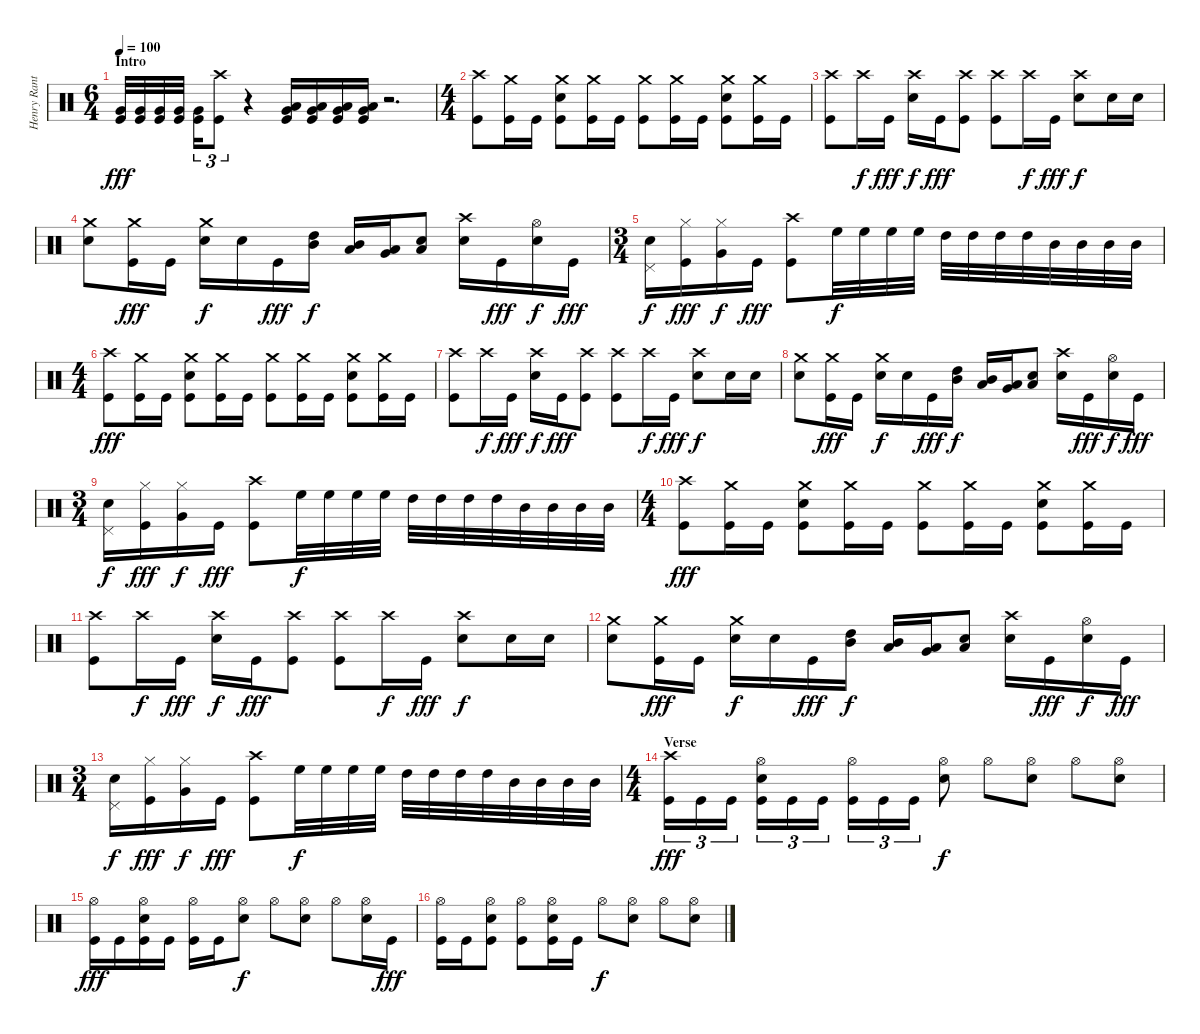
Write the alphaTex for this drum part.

\track ("Henry Ranta" "Henry Rant") {instrument percussion}
\staff {score}
\articulation defaults
\ts (6 4)
\section ("" "Intro")
\tempo 100
\clef neutral
\ks c
("Very Low Tom (hit)" "Kick (hit)").32{dy fff} ("Very Low Tom (hit)" "Kick (hit)").32 ("Very Low Tom (hit)" "Kick (hit)").32 ("Very Low Tom (hit)" "Kick (hit)").32 ("Very Low Tom (hit)" "Kick (hit)").16{tu (3 2)} ("Crash high (hit)" "Kick (hit)").8{tu (3 2)} r.4 ("Low Floor Tom (hit)" "Very Low Tom (hit)" "Kick (hit)").16 ("Low Floor Tom (hit)" "Very Low Tom (hit)" "Kick (hit)").16 ("Low Floor Tom (hit)" "Very Low Tom (hit)" "Kick (hit)").16 ("Low Floor Tom (hit)" "Very Low Tom (hit)" "Kick (hit)").16 r.2{d} |
\ts (4 4)
("Crash high (hit)" "Kick (hit)").8 ("Crash medium (hit)" "Kick (hit)").16 "Kick (hit)".16 ("Crash medium (hit)" "Electric Snare (hit)" "Kick (hit)").8 ("Crash medium (hit)" "Kick (hit)").16 "Kick (hit)".16 ("Crash medium (hit)" "Kick (hit)").8 ("Crash medium (hit)" "Kick (hit)").16 "Kick (hit)".16 ("Crash medium (hit)" "Electric Snare (hit)" "Kick (hit)").8 ("Crash medium (hit)" "Kick (hit)").16 "Kick (hit)".16 |
("Crash high (hit)" "Kick (hit)").8 "Crash high (hit)".16{dy f} "Kick (hit)".16{dy fff} ("Crash high (hit)" "Electric Snare (hit)").16{dy f} "Kick (hit)".16{dy fff} ("Crash high (hit)" "Kick (hit)").8 ("Crash high (hit)" "Kick (hit)").8 "Crash high (hit)".16{dy f} "Kick (hit)".16{dy fff} ("Crash high (hit)" "Electric Snare (hit)").8{dy f} "Electric Snare (hit)".16 "Electric Snare (hit)".16 |
("Crash medium (hit)" "Electric Snare (hit)").8 ("Crash medium (hit)" "Kick (hit)").16{dy fff} "Kick (hit)".16 ("Crash medium (hit)" "Electric Snare (hit)").16{dy f} "Electric Snare (hit)".16 "Kick (hit)".16{dy fff} ("Mid Tom (hit)" "High Tom (hit)").16{dy f} ("Mid Tom (hit)" "Low Tom (hit)").16 ("Very Low Tom (hit)" "Low Tom (hit)").16 ("Low Floor Tom (hit)" "Electric Snare (hit)").8 ("Crash high (hit)" "Electric Snare (hit)").16 "Kick (hit)".16{dy fff} ("Hi-Hat (open)" "Electric Snare (hit)").16{dy f} "Kick (hit)".16{dy fff} |
\ts (3 4)
("Pedal Hi-Hat (hit)" "Electric Snare (hit)").16{dy f} ("Hi-Hat (closed)" "Kick (hit)").16{dy fff} ("Hi-Hat (closed)" "Very Low Tom (hit)").16{dy f} "Kick (hit)".16{dy fff} ("Crash high (hit)" "Kick (hit)").8 "High Floor Tom (hit)".32{dy f} "High Floor Tom (hit)".32 "High Floor Tom (hit)".32 "High Floor Tom (hit)".32 "High Tom (hit)".32 "High Tom (hit)".32 "High Tom (hit)".32 "High Tom (hit)".32 "Mid Tom (hit)".32 "Mid Tom (hit)".32 "Mid Tom (hit)".32 "Mid Tom (hit)".32 |
\ts (4 4)
("Crash high (hit)" "Kick (hit)").8{dy fff} ("Crash medium (hit)" "Kick (hit)").16 "Kick (hit)".16 ("Crash medium (hit)" "Electric Snare (hit)" "Kick (hit)").8 ("Crash medium (hit)" "Kick (hit)").16 "Kick (hit)".16 ("Crash medium (hit)" "Kick (hit)").8 ("Crash medium (hit)" "Kick (hit)").16 "Kick (hit)".16 ("Crash medium (hit)" "Electric Snare (hit)" "Kick (hit)").8 ("Crash medium (hit)" "Kick (hit)").16 "Kick (hit)".16 |
("Crash high (hit)" "Kick (hit)").8 "Crash high (hit)".16{dy f} "Kick (hit)".16{dy fff} ("Crash high (hit)" "Electric Snare (hit)").16{dy f} "Kick (hit)".16{dy fff} ("Crash high (hit)" "Kick (hit)").8 ("Crash high (hit)" "Kick (hit)").8 "Crash high (hit)".16{dy f} "Kick (hit)".16{dy fff} ("Crash high (hit)" "Electric Snare (hit)").8{dy f} "Electric Snare (hit)".16 "Electric Snare (hit)".16 |
("Crash medium (hit)" "Electric Snare (hit)").8 ("Crash medium (hit)" "Kick (hit)").16{dy fff} "Kick (hit)".16 ("Crash medium (hit)" "Electric Snare (hit)").16{dy f} "Electric Snare (hit)".16 "Kick (hit)".16{dy fff} ("Mid Tom (hit)" "High Tom (hit)").16{dy f} ("Mid Tom (hit)" "Low Tom (hit)").16 ("Very Low Tom (hit)" "Low Tom (hit)").16 ("Low Floor Tom (hit)" "Electric Snare (hit)").8 ("Crash high (hit)" "Electric Snare (hit)").16 "Kick (hit)".16{dy fff} ("Hi-Hat (open)" "Electric Snare (hit)").16{dy f} "Kick (hit)".16{dy fff} |
\ts (3 4)
("Pedal Hi-Hat (hit)" "Electric Snare (hit)").16{dy f} ("Hi-Hat (closed)" "Kick (hit)").16{dy fff} ("Hi-Hat (closed)" "Very Low Tom (hit)").16{dy f} "Kick (hit)".16{dy fff} ("Crash high (hit)" "Kick (hit)").8 "High Floor Tom (hit)".32{dy f} "High Floor Tom (hit)".32 "High Floor Tom (hit)".32 "High Floor Tom (hit)".32 "High Tom (hit)".32 "High Tom (hit)".32 "High Tom (hit)".32 "High Tom (hit)".32 "Mid Tom (hit)".32 "Mid Tom (hit)".32 "Mid Tom (hit)".32 "Mid Tom (hit)".32 |
\ts (4 4)
("Crash high (hit)" "Kick (hit)").8{dy fff} ("Crash medium (hit)" "Kick (hit)").16 "Kick (hit)".16 ("Crash medium (hit)" "Electric Snare (hit)" "Kick (hit)").8 ("Crash medium (hit)" "Kick (hit)").16 "Kick (hit)".16 ("Crash medium (hit)" "Kick (hit)").8 ("Crash medium (hit)" "Kick (hit)").16 "Kick (hit)".16 ("Crash medium (hit)" "Electric Snare (hit)" "Kick (hit)").8 ("Crash medium (hit)" "Kick (hit)").16 "Kick (hit)".16 |
("Crash high (hit)" "Kick (hit)").8 "Crash high (hit)".16{dy f} "Kick (hit)".16{dy fff} ("Crash high (hit)" "Electric Snare (hit)").16{dy f} "Kick (hit)".16{dy fff} ("Crash high (hit)" "Kick (hit)").8 ("Crash high (hit)" "Kick (hit)").8 "Crash high (hit)".16{dy f} "Kick (hit)".16{dy fff} ("Crash high (hit)" "Electric Snare (hit)").8{dy f} "Electric Snare (hit)".16 "Electric Snare (hit)".16 |
("Crash medium (hit)" "Electric Snare (hit)").8 ("Crash medium (hit)" "Kick (hit)").16{dy fff} "Kick (hit)".16 ("Crash medium (hit)" "Electric Snare (hit)").16{dy f} "Electric Snare (hit)".16 "Kick (hit)".16{dy fff} ("Mid Tom (hit)" "High Tom (hit)").16{dy f} ("Mid Tom (hit)" "Low Tom (hit)").16 ("Very Low Tom (hit)" "Low Tom (hit)").16 ("Low Floor Tom (hit)" "Electric Snare (hit)").8 ("Crash high (hit)" "Electric Snare (hit)").16 "Kick (hit)".16{dy fff} ("Hi-Hat (open)" "Electric Snare (hit)").16{dy f} "Kick (hit)".16{dy fff} |
\ts (3 4)
("Pedal Hi-Hat (hit)" "Electric Snare (hit)").16{dy f} ("Hi-Hat (closed)" "Kick (hit)").16{dy fff} ("Hi-Hat (closed)" "Very Low Tom (hit)").16{dy f} "Kick (hit)".16{dy fff} ("Crash high (hit)" "Kick (hit)").8 "High Floor Tom (hit)".32{dy f} "High Floor Tom (hit)".32 "High Floor Tom (hit)".32 "High Floor Tom (hit)".32 "High Tom (hit)".32 "High Tom (hit)".32 "High Tom (hit)".32 "High Tom (hit)".32 "Mid Tom (hit)".32 "Mid Tom (hit)".32 "Mid Tom (hit)".32 "Mid Tom (hit)".32 |
\ts (4 4)
\section ("" "Verse")
("Crash high (hit)" "Kick (hit)").16{tu (3 2) dy fff} "Kick (hit)".16{tu (3 2)} "Kick (hit)".16{tu (3 2)} ("Hi-Hat (open)" "Electric Snare (hit)" "Kick (hit)").16{tu (3 2)} "Kick (hit)".16{tu (3 2)} "Kick (hit)".16{tu (3 2)} ("Hi-Hat (open)" "Kick (hit)").16{tu (3 2)} "Kick (hit)".16{tu (3 2)} "Kick (hit)".16{tu (3 2)} ("Hi-Hat (open)" "Electric Snare (hit)").8{dy f} "Hi-Hat (open)".8 ("Hi-Hat (open)" "Electric Snare (hit)").8 "Hi-Hat (open)".8 ("Hi-Hat (open)" "Electric Snare (hit)").8 |
("Hi-Hat (open)" "Kick (hit)").16{dy fff} "Kick (hit)".16 ("Hi-Hat (open)" "Electric Snare (hit)" "Kick (hit)").16 "Kick (hit)".16 ("Hi-Hat (open)" "Kick (hit)").16 "Kick (hit)".16 ("Hi-Hat (open)" "Electric Snare (hit)").8{dy f} "Hi-Hat (open)".8 ("Hi-Hat (open)" "Electric Snare (hit)").8 "Hi-Hat (open)".8 ("Hi-Hat (open)" "Electric Snare (hit)").16 "Kick (hit)".16{dy fff} |
("Hi-Hat (open)" "Kick (hit)").16 "Kick (hit)".16 ("Hi-Hat (open)" "Electric Snare (hit)" "Kick (hit)").8 ("Hi-Hat (open)" "Kick (hit)").8 ("Hi-Hat (open)" "Electric Snare (hit)" "Kick (hit)").16 "Kick (hit)".16 "Hi-Hat (open)".8{dy f} ("Hi-Hat (open)" "Electric Snare (hit)").8 "Hi-Hat (open)".8 ("Hi-Hat (open)" "Electric Snare (hit)").8
